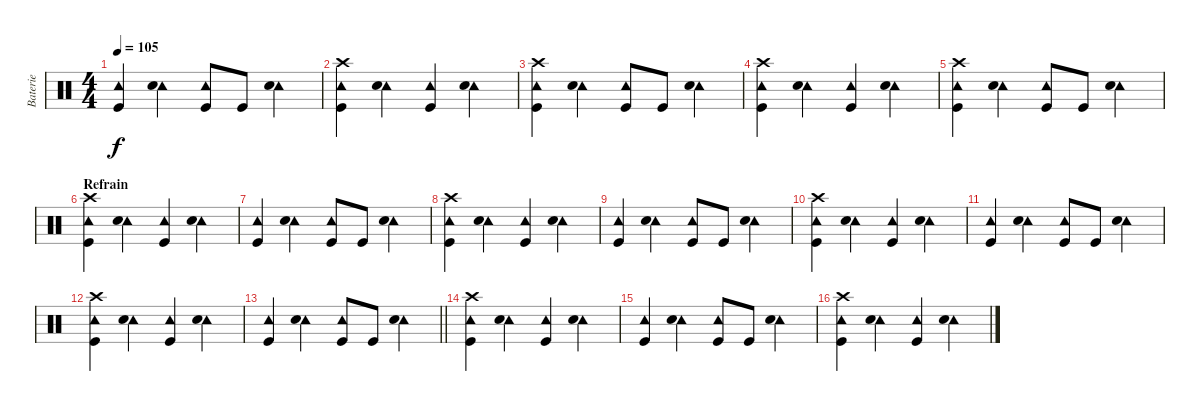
\track ("Baterie" "Baterie") {instrument percussion}
\staff {score}
\articulation defaults
\ts (4 4)
\tempo 105
\clef neutral
\ks c
("Tambourine (hit)" "Kick (hit)").4{dy f} ("Tambourine (hit)" "Snare (hit) 2").4 ("Tambourine (hit)" "Kick (hit)").8 "Kick (hit)".8 ("Tambourine (hit)" "Snare (hit) 2").4 |
("Tambourine (hit)" "Crash high (hit)" "Kick (hit)").4 ("Tambourine (hit)" "Snare (hit) 2").4 ("Tambourine (hit)" "Kick (hit)").4 ("Tambourine (hit)" "Snare (hit) 2").4 |
("Tambourine (hit)" "Crash high (hit)" "Kick (hit)").4 ("Tambourine (hit)" "Snare (hit) 2").4 ("Tambourine (hit)" "Kick (hit)").8 "Kick (hit)".8 ("Tambourine (hit)" "Snare (hit) 2").4 |
("Tambourine (hit)" "Crash high (hit)" "Kick (hit)").4 ("Tambourine (hit)" "Snare (hit) 2").4 ("Tambourine (hit)" "Kick (hit)").4 ("Tambourine (hit)" "Snare (hit) 2").4 |
("Tambourine (hit)" "Crash high (hit)" "Kick (hit)").4 ("Tambourine (hit)" "Snare (hit) 2").4 ("Tambourine (hit)" "Kick (hit)").8 "Kick (hit)".8 ("Tambourine (hit)" "Snare (hit) 2").4 |
\section ("" "Refrain")
("Tambourine (hit)" "Crash high (hit)" "Kick (hit)").4 ("Tambourine (hit)" "Snare (hit) 2").4 ("Tambourine (hit)" "Kick (hit)").4 ("Tambourine (hit)" "Snare (hit) 2").4 |
("Tambourine (hit)" "Kick (hit)").4 ("Tambourine (hit)" "Snare (hit) 2").4 ("Tambourine (hit)" "Kick (hit)").8 "Kick (hit)".8 ("Tambourine (hit)" "Snare (hit) 2").4 |
("Tambourine (hit)" "Crash high (hit)" "Kick (hit)").4 ("Tambourine (hit)" "Snare (hit) 2").4 ("Tambourine (hit)" "Kick (hit)").4 ("Tambourine (hit)" "Snare (hit) 2").4 |
("Tambourine (hit)" "Kick (hit)").4 ("Tambourine (hit)" "Snare (hit) 2").4 ("Tambourine (hit)" "Kick (hit)").8 "Kick (hit)".8 ("Tambourine (hit)" "Snare (hit) 2").4 |
("Tambourine (hit)" "Crash high (hit)" "Kick (hit)").4 ("Tambourine (hit)" "Snare (hit) 2").4 ("Tambourine (hit)" "Kick (hit)").4 ("Tambourine (hit)" "Snare (hit) 2").4 |
("Tambourine (hit)" "Kick (hit)").4 ("Tambourine (hit)" "Snare (hit) 2").4 ("Tambourine (hit)" "Kick (hit)").8 "Kick (hit)".8 ("Tambourine (hit)" "Snare (hit) 2").4 |
("Tambourine (hit)" "Crash high (hit)" "Kick (hit)").4 ("Tambourine (hit)" "Snare (hit) 2").4 ("Tambourine (hit)" "Kick (hit)").4 ("Tambourine (hit)" "Snare (hit) 2").4 |
\barLineRight lightlight
("Tambourine (hit)" "Kick (hit)").4 ("Tambourine (hit)" "Snare (hit) 2").4 ("Tambourine (hit)" "Kick (hit)").8 "Kick (hit)".8 ("Tambourine (hit)" "Snare (hit) 2").4 |
("Tambourine (hit)" "Crash high (hit)" "Kick (hit)").4 ("Tambourine (hit)" "Snare (hit) 2").4 ("Tambourine (hit)" "Kick (hit)").4 ("Tambourine (hit)" "Snare (hit) 2").4 |
("Tambourine (hit)" "Kick (hit)").4 ("Tambourine (hit)" "Snare (hit) 2").4 ("Tambourine (hit)" "Kick (hit)").8 "Kick (hit)".8 ("Tambourine (hit)" "Snare (hit) 2").4 |
("Tambourine (hit)" "Crash high (hit)" "Kick (hit)").4 ("Tambourine (hit)" "Snare (hit) 2").4 ("Tambourine (hit)" "Kick (hit)").4 ("Tambourine (hit)" "Snare (hit) 2").4
